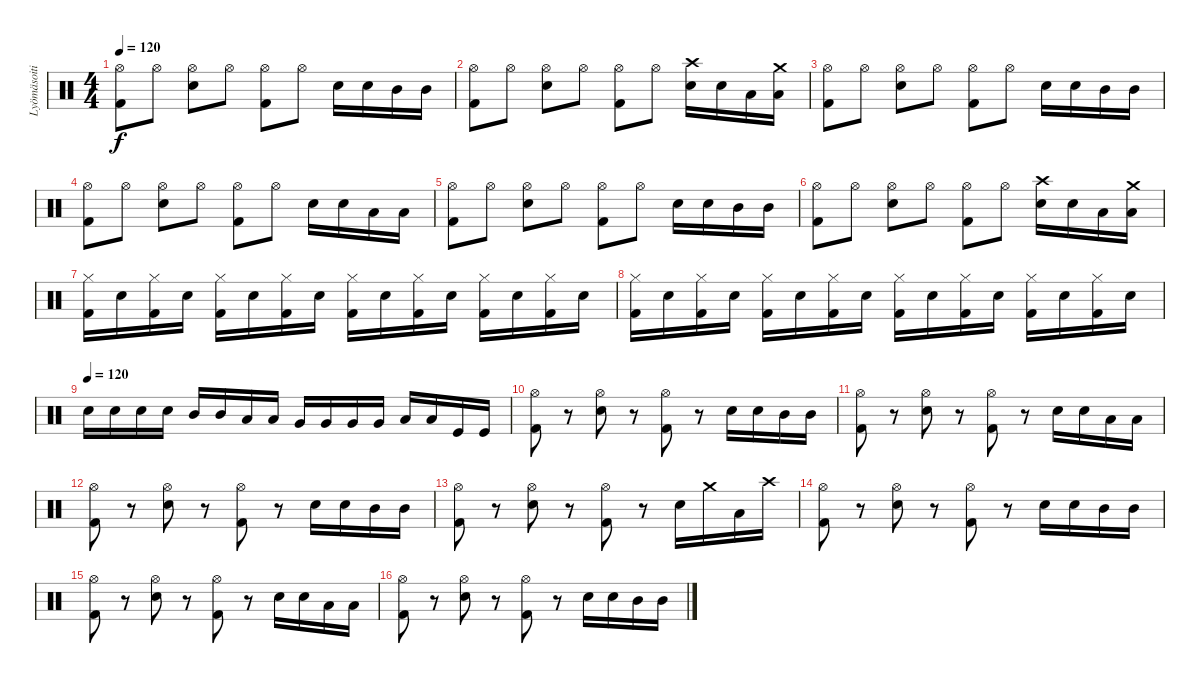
\track ("Lyömäsoitin" "Lyömäsoiti") {instrument percussion}
\staff {score}
\articulation defaults
\ts (4 4)
\tempo 120
\clef neutral
\ks c
("Hi-Hat (open)" "Kick (hit) 2").8{dy f} "Hi-Hat (open)".8 ("Hi-Hat (open)" "Snare (hit) 2").8 "Hi-Hat (open)".8 ("Hi-Hat (open)" "Kick (hit) 2").8 "Hi-Hat (open)".8 "Snare (hit) 2".16 "Snare (hit) 2".16 "Mid Tom (hit)".16 "Mid Tom (hit)".16 |
("Hi-Hat (open)" "Kick (hit) 2").8 "Hi-Hat (open)".8 ("Hi-Hat (open)" "Snare (hit) 2").8 "Hi-Hat (open)".8 ("Hi-Hat (open)" "Kick (hit) 2").8 "Hi-Hat (open)".8 ("Snare (hit) 2" "Crash high (hit)").16 "Snare (hit) 2".16 "Low Tom (hit)".16 ("Low Tom (hit)" "Crash medium (hit)").16 |
("Hi-Hat (open)" "Kick (hit) 2").8 "Hi-Hat (open)".8 ("Hi-Hat (open)" "Snare (hit) 2").8 "Hi-Hat (open)".8 ("Hi-Hat (open)" "Kick (hit) 2").8 "Hi-Hat (open)".8 "Snare (hit) 2".16 "Snare (hit) 2".16 "Mid Tom (hit)".16 "Mid Tom (hit)".16 |
("Hi-Hat (open)" "Kick (hit) 2").8 "Hi-Hat (open)".8 ("Hi-Hat (open)" "Snare (hit) 2").8 "Hi-Hat (open)".8 ("Hi-Hat (open)" "Kick (hit) 2").8 "Hi-Hat (open)".8 "Snare (hit) 2".16 "Snare (hit) 2".16 "Low Tom (hit)".16 "Low Tom (hit)".16 |
("Hi-Hat (open)" "Kick (hit) 2").8 "Hi-Hat (open)".8 ("Hi-Hat (open)" "Snare (hit) 2").8 "Hi-Hat (open)".8 ("Hi-Hat (open)" "Kick (hit) 2").8 "Hi-Hat (open)".8 "Snare (hit) 2".16 "Snare (hit) 2".16 "Mid Tom (hit)".16 "Mid Tom (hit)".16 |
("Hi-Hat (open)" "Kick (hit) 2").8 "Hi-Hat (open)".8 ("Hi-Hat (open)" "Snare (hit) 2").8 "Hi-Hat (open)".8 ("Hi-Hat (open)" "Kick (hit) 2").8 "Hi-Hat (open)".8 ("Snare (hit) 2" "Crash high (hit)").16 "Snare (hit) 2".16 "Low Tom (hit)".16 ("Low Tom (hit)" "Crash medium (hit)").16 |
("Hi-Hat (closed)" "Kick (hit) 2").16 "Snare (hit) 2".16 ("Hi-Hat (closed)" "Kick (hit) 2").16 "Snare (hit) 2".16 ("Hi-Hat (closed)" "Kick (hit) 2").16 "Snare (hit) 2".16 ("Hi-Hat (closed)" "Kick (hit) 2").16 "Snare (hit) 2".16 ("Hi-Hat (closed)" "Kick (hit) 2").16 "Snare (hit) 2".16 ("Hi-Hat (closed)" "Kick (hit) 2").16 "Snare (hit) 2".16 ("Hi-Hat (closed)" "Kick (hit) 2").16 "Snare (hit) 2".16 ("Hi-Hat (closed)" "Kick (hit) 2").16 "Snare (hit) 2".16 |
("Hi-Hat (closed)" "Kick (hit) 2").16 "Snare (hit) 2".16 ("Hi-Hat (closed)" "Kick (hit) 2").16 "Snare (hit) 2".16 ("Hi-Hat (closed)" "Kick (hit) 2").16 "Snare (hit) 2".16 ("Hi-Hat (closed)" "Kick (hit) 2").16 "Snare (hit) 2".16 ("Hi-Hat (closed)" "Kick (hit) 2").16 "Snare (hit) 2".16 ("Hi-Hat (closed)" "Kick (hit) 2").16 "Snare (hit) 2".16 ("Hi-Hat (closed)" "Kick (hit) 2").16 "Snare (hit) 2".16 ("Hi-Hat (closed)" "Kick (hit) 2").16 "Snare (hit) 2".16 |
\tempo (120)
"Snare (hit) 2".16 "Snare (hit) 2".16 "Snare (hit) 2".16 "Snare (hit) 2".16 "Mid Tom (hit)".16 "Mid Tom (hit)".16 "Low Tom (hit)".16 "Low Tom (hit)".16 "Very Low Tom (hit)".16 "Very Low Tom (hit)".16 "Very Low Tom (hit)".16 "Very Low Tom (hit)".16 "Low Floor Tom (hit)".16 "Low Floor Tom (hit)".16 "Kick (hit)".16 "Kick (hit)".16 |
("Hi-Hat (open)" "Kick (hit) 2").8 r.8 ("Hi-Hat (open)" "Snare (hit) 2").8 r.8 ("Hi-Hat (open)" "Kick (hit) 2").8 r.8 "Snare (hit) 2".16 "Snare (hit) 2".16 "Mid Tom (hit)".16 "Mid Tom (hit)".16 |
("Hi-Hat (open)" "Kick (hit) 2").8 r.8 ("Hi-Hat (open)" "Snare (hit) 2").8 r.8 ("Hi-Hat (open)" "Kick (hit) 2").8 r.8 "Snare (hit) 2".16 "Snare (hit) 2".16 "Low Tom (hit)".16 "Low Tom (hit)".16 |
("Hi-Hat (open)" "Kick (hit) 2").8 r.8 ("Hi-Hat (open)" "Snare (hit) 2").8 r.8 ("Hi-Hat (open)" "Kick (hit) 2").8 r.8 "Snare (hit) 2".16 "Snare (hit) 2".16 "Mid Tom (hit)".16 "Mid Tom (hit)".16 |
("Hi-Hat (open)" "Kick (hit) 2").8 r.8 ("Hi-Hat (open)" "Snare (hit) 2").8 r.8 ("Hi-Hat (open)" "Kick (hit) 2").8 r.8 "Snare (hit) 2".16 "Crash medium (hit)".16 "Low Tom (hit)".16 "Crash high (hit)".16 |
("Hi-Hat (open)" "Kick (hit) 2").8 r.8 ("Hi-Hat (open)" "Snare (hit) 2").8 r.8 ("Hi-Hat (open)" "Kick (hit) 2").8 r.8 "Snare (hit) 2".16 "Snare (hit) 2".16 "Mid Tom (hit)".16 "Mid Tom (hit)".16 |
("Hi-Hat (open)" "Kick (hit) 2").8 r.8 ("Hi-Hat (open)" "Snare (hit) 2").8 r.8 ("Hi-Hat (open)" "Kick (hit) 2").8 r.8 "Snare (hit) 2".16 "Snare (hit) 2".16 "Low Tom (hit)".16 "Low Tom (hit)".16 |
("Hi-Hat (open)" "Kick (hit) 2").8 r.8 ("Hi-Hat (open)" "Snare (hit) 2").8 r.8 ("Hi-Hat (open)" "Kick (hit) 2").8 r.8 "Snare (hit) 2".16 "Snare (hit) 2".16 "Mid Tom (hit)".16 "Mid Tom (hit)".16
